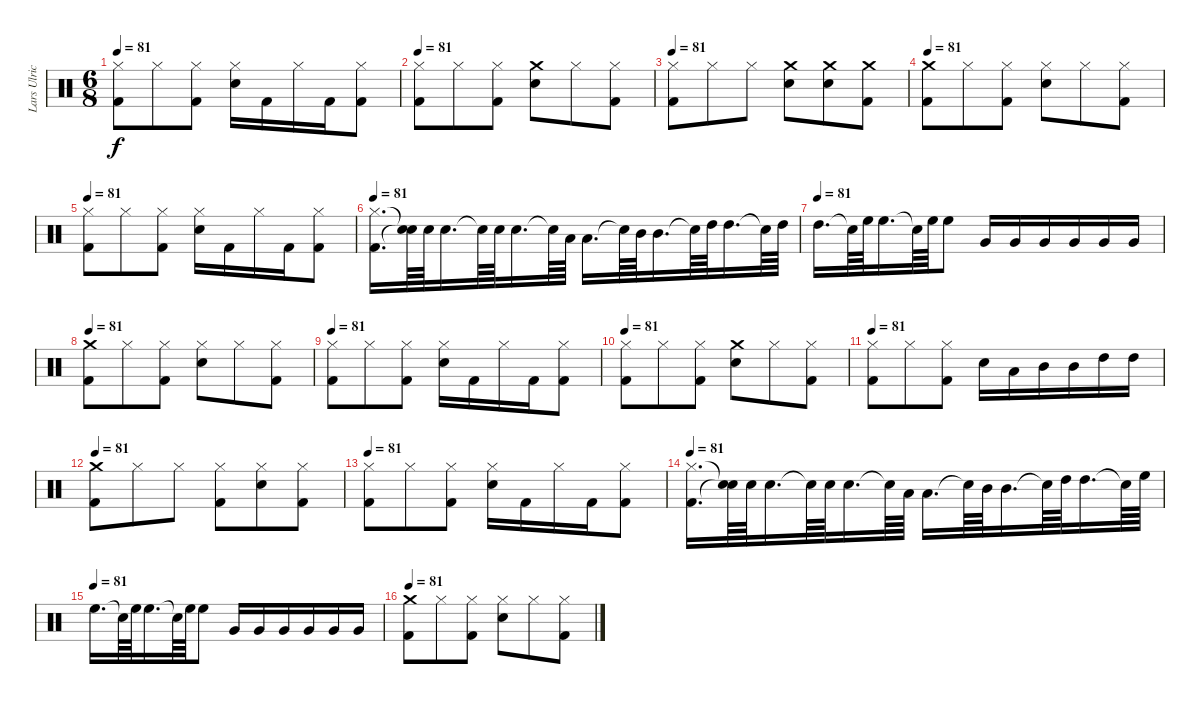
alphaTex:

\track ("Lars Ulrich (Drums)" "Lars Ulric") {instrument percussion}
\staff {score}
\articulation defaults
\ts (6 8)
\tempo 81
\clef neutral
\ks c
("Hi-Hat (closed)" "Kick (hit) 2").8{dy f} "Hi-Hat (closed)".8 ("Kick (hit) 2" "Hi-Hat (closed)").8 ("Hi-Hat (closed)" "Snare (hit) 2").16 "Kick (hit) 2".16 "Hi-Hat (closed)".16 "Kick (hit) 2".16 ("Kick (hit) 2" "Hi-Hat (closed)").8 |
\tempo 81
("Kick (hit) 2" "Hi-Hat (closed)").8 "Hi-Hat (closed)".8 ("Kick (hit) 2" "Hi-Hat (closed)").8 ("Crash medium (hit)" "Snare (hit) 2").8 "Hi-Hat (closed)".8 ("Kick (hit) 2" "Hi-Hat (closed)").8 |
\tempo 81
("Hi-Hat (closed)" "Kick (hit) 2").8 "Hi-Hat (closed)".8 "Hi-Hat (closed)".8 ("Crash medium (hit)" "Snare (hit) 2").8 ("Crash medium (hit)" "Snare (hit) 2").8 ("Kick (hit) 2" "Crash medium (hit)").8 |
\tempo 81
("Crash medium (hit)" "Kick (hit) 2").8 "Hi-Hat (closed)".8 ("Hi-Hat (closed)" "Kick (hit) 2").8 ("Snare (hit) 2" "Hi-Hat (closed)").8 "Hi-Hat (closed)".8 ("Hi-Hat (closed)" "Kick (hit) 2").8 |
\tempo 81
("Hi-Hat (closed)" "Kick (hit) 2").8 "Hi-Hat (closed)".8 ("Kick (hit) 2" "Hi-Hat (closed)").8 ("Hi-Hat (closed)" "Snare (hit) 2").16 "Kick (hit) 2".16 "Hi-Hat (closed)".16 "Kick (hit) 2".16 ("Kick (hit) 2" "Hi-Hat (closed)").8 |
\tempo 81
("Kick (hit) 2" "Hi-Hat (closed)").16{d} ("Snare (hit)"{t} "Snare (hit)"{t}).64 "Snare (hit) 2".64 "Snare (hit) 2".16{d} "Snare (hit)"{t}.64 "Snare (hit) 2".64 "Snare (hit) 2".16{d} "Snare (hit)"{t}.64 "Low Tom (hit)".64 "Low Tom (hit)".16{d} "Snare (hit)"{t}.64 "Mid Tom (hit)".64 "Mid Tom (hit)".16{d} "Snare (hit)"{t}.64 "High Tom (hit)".64 "High Tom (hit)".16{d} "Snare (hit)"{t}.64 "High Tom (hit)".64 |
\tempo (81)
"High Tom (hit)".16{d} "Snare (hit)"{t}.64 "High Floor Tom (hit)".64 "High Floor Tom (hit)".16{d} "Snare (hit)"{t}.64 "High Floor Tom (hit)".64 "High Floor Tom (hit)".8 "Very Low Tom (hit)".16 "Very Low Tom (hit)".16 "Very Low Tom (hit)".16 "Very Low Tom (hit)".16 "Very Low Tom (hit)".16 "Very Low Tom (hit)".16 |
\tempo 81
("Kick (hit) 2" "Crash medium (hit)").8 "Hi-Hat (closed)".8 ("Kick (hit) 2" "Hi-Hat (closed)").8 ("Snare (hit) 2" "Hi-Hat (closed)").8 "Hi-Hat (closed)".8 ("Kick (hit) 2" "Hi-Hat (closed)").8 |
\tempo 81
("Hi-Hat (closed)" "Kick (hit) 2").8 "Hi-Hat (closed)".8 ("Kick (hit) 2" "Hi-Hat (closed)").8 ("Snare (hit) 2" "Hi-Hat (closed)").16 "Kick (hit) 2".16 "Hi-Hat (closed)".16 "Kick (hit) 2".16 ("Kick (hit) 2" "Hi-Hat (closed)").8 |
\tempo 81
("Kick (hit) 2" "Hi-Hat (closed)").8 "Hi-Hat (closed)".8 ("Kick (hit) 2" "Hi-Hat (closed)").8 ("Crash medium (hit)" "Snare (hit) 2").8 "Hi-Hat (closed)".8 ("Kick (hit) 2" "Hi-Hat (closed)").8 |
\tempo 81
("Hi-Hat (closed)" "Kick (hit) 2").8 "Hi-Hat (closed)".8 ("Hi-Hat (closed)" "Kick (hit) 2").8 "Snare (hit) 2".16 "Low Tom (hit)".16 "Mid Tom (hit)".16 "Mid Tom (hit)".16 "High Tom (hit)".16 "High Tom (hit)".16 |
\tempo 81
("Crash medium (hit)" "Kick (hit) 2").8 "Hi-Hat (closed)".8 "Hi-Hat (closed)".8 ("Kick (hit) 2" "Hi-Hat (closed)").8 ("Snare (hit) 2" "Hi-Hat (closed)").8 ("Kick (hit) 2" "Hi-Hat (closed)").8 |
\tempo 81
("Hi-Hat (closed)" "Kick (hit) 2").8 "Hi-Hat (closed)".8 ("Kick (hit) 2" "Hi-Hat (closed)").8 ("Hi-Hat (closed)" "Snare (hit) 2").16 "Kick (hit) 2".16 "Hi-Hat (closed)".16 "Kick (hit) 2".16 ("Kick (hit) 2" "Hi-Hat (closed)").8 |
\tempo 81
("Kick (hit) 2" "Hi-Hat (closed)").16{d} ("Snare (hit)"{t} "Snare (hit)"{t}).64 "Snare (hit) 2".64 "Snare (hit) 2".16{d} "Snare (hit)"{t}.64 "Snare (hit) 2".64 "Snare (hit) 2".16{d} "Snare (hit)"{t}.64 "Low Tom (hit)".64 "Low Tom (hit)".16{d} "Snare (hit)"{t}.64 "Mid Tom (hit)".64 "Mid Tom (hit)".16{d} "Snare (hit)"{t}.64 "High Tom (hit)".64 "High Tom (hit)".16{d} "Snare (hit)"{t}.64 "High Floor Tom (hit)".64 |
\tempo (81)
"High Floor Tom (hit)".16{d} "Snare (hit)"{t}.64 "High Floor Tom (hit)".64 "High Floor Tom (hit)".16{d} "Snare (hit)"{t}.64 "High Floor Tom (hit)".64 "High Floor Tom (hit)".8 "Very Low Tom (hit)".16 "Very Low Tom (hit)".16 "Very Low Tom (hit)".16 "Very Low Tom (hit)".16 "Very Low Tom (hit)".16 "Very Low Tom (hit)".16 |
\tempo 81
("Kick (hit) 2" "Crash medium (hit)").8 "Hi-Hat (closed)".8 ("Kick (hit) 2" "Hi-Hat (closed)").8 ("Snare (hit) 2" "Hi-Hat (closed)").8 "Hi-Hat (closed)".8 ("Kick (hit) 2" "Hi-Hat (closed)").8
